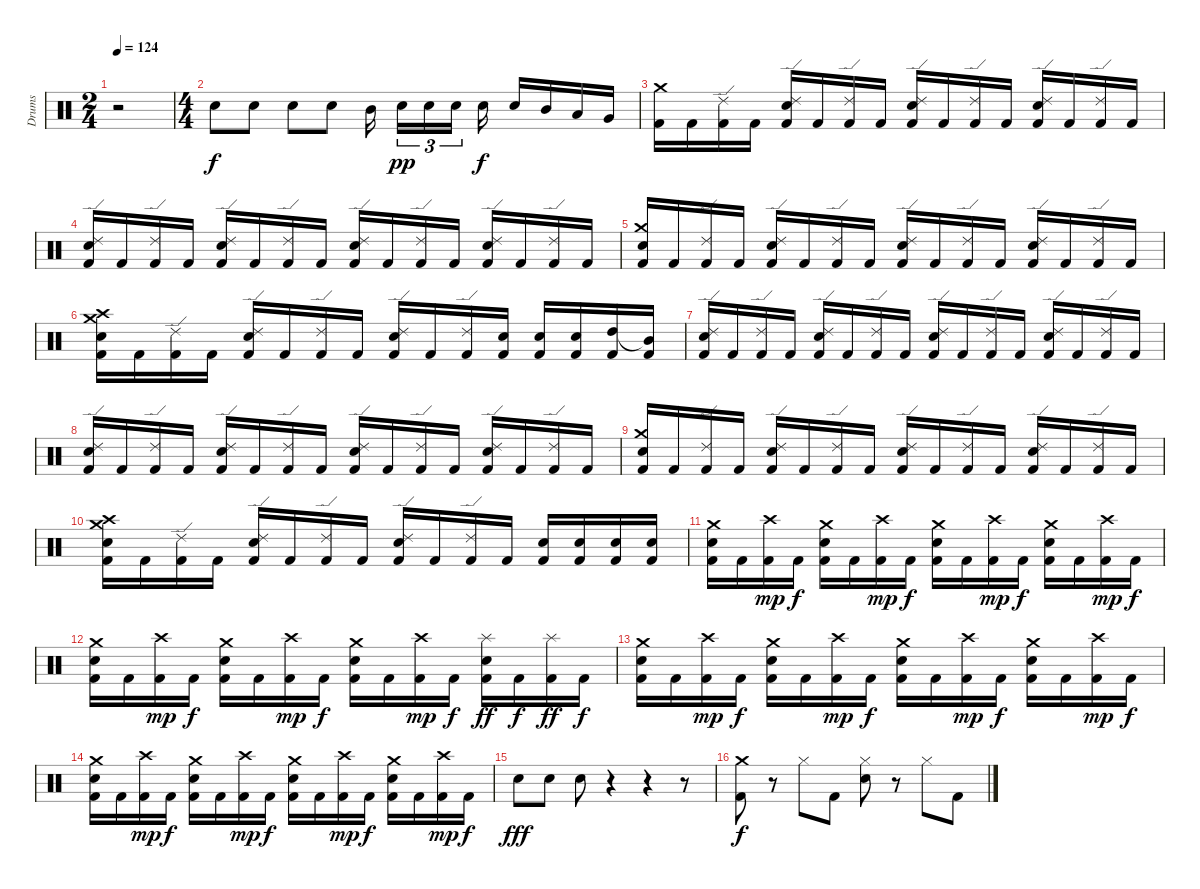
\track ("Drums" "Drums") {instrument percussion}
\staff {score}
\articulation defaults
\ts (2 4)
\tempo 124
\clef neutral
\ks c
r.2{dy f} |
\ts (4 4)
"Electric Snare (hit)".8 "Electric Snare (hit)".8 "Electric Snare (hit)".8 "Electric Snare (hit)".8 "Mid Tom (hit)".16 "Electric Snare (hit)".16{tu (3 2) dy pp} "Electric Snare (hit)".16{tu (3 2)} "Electric Snare (hit)".16{tu (3 2)} "Electric Snare (hit)".16{dy f} "Electric Snare (hit)".16 "Mid Tom (hit)".16 "Low Tom (hit)".16 "Very Low Tom (hit)".16 |
("Crash medium (hit)" "Kick (hit) 2").16 "Kick (hit) 2".16 ("Ride (edge) 2" "Kick (hit) 2").16 "Kick (hit) 2".16 ("Ride (edge) 2" "Electric Snare (hit)" "Kick (hit) 2").16 "Kick (hit) 2".16 ("Ride (edge) 2" "Kick (hit) 2").16 "Kick (hit) 2".16 ("Ride (edge) 2" "Electric Snare (hit)" "Kick (hit) 2").16 "Kick (hit) 2".16 ("Ride (edge) 2" "Kick (hit) 2").16 "Kick (hit) 2".16 ("Ride (edge) 2" "Electric Snare (hit)" "Kick (hit) 2").16 "Kick (hit) 2".16 ("Ride (edge) 2" "Kick (hit) 2").16 "Kick (hit) 2".16 |
("Ride (edge) 2" "Electric Snare (hit)" "Kick (hit) 2").16 "Kick (hit) 2".16 ("Ride (edge) 2" "Kick (hit) 2").16 "Kick (hit) 2".16 ("Ride (edge) 2" "Electric Snare (hit)" "Kick (hit) 2").16 "Kick (hit) 2".16 ("Ride (edge) 2" "Kick (hit) 2").16 "Kick (hit) 2".16 ("Ride (edge) 2" "Electric Snare (hit)" "Kick (hit) 2").16 "Kick (hit) 2".16 ("Ride (edge) 2" "Kick (hit) 2").16 "Kick (hit) 2".16 ("Ride (edge) 2" "Electric Snare (hit)" "Kick (hit) 2").16 "Kick (hit) 2".16 ("Ride (edge) 2" "Kick (hit) 2").16 "Kick (hit) 2".16 |
("Crash medium (hit)" "Electric Snare (hit)" "Kick (hit) 2").16 "Kick (hit) 2".16 ("Ride (edge) 2" "Kick (hit) 2").16 "Kick (hit) 2".16 ("Ride (edge) 2" "Electric Snare (hit)" "Kick (hit) 2").16 "Kick (hit) 2".16 ("Ride (edge) 2" "Kick (hit) 2").16 "Kick (hit) 2".16 ("Ride (edge) 2" "Electric Snare (hit)" "Kick (hit) 2").16 "Kick (hit) 2".16 ("Ride (edge) 2" "Kick (hit) 2").16 "Kick (hit) 2".16 ("Ride (edge) 2" "Electric Snare (hit)" "Kick (hit) 2").16 "Kick (hit) 2".16 ("Ride (edge) 2" "Kick (hit) 2").16 "Kick (hit) 2".16 |
("Crash high (hit)" "Crash medium (hit)" "Electric Snare (hit)" "Kick (hit) 2").16 "Kick (hit) 2".16 ("Ride (edge) 2" "Kick (hit) 2").16 "Kick (hit) 2".16 ("Ride (edge) 2" "Electric Snare (hit)" "Kick (hit) 2").16 "Kick (hit) 2".16 ("Ride (edge) 2" "Kick (hit) 2").16 "Kick (hit) 2".16 ("Ride (edge) 2" "Electric Snare (hit)" "Kick (hit) 2").16 "Kick (hit) 2".16 ("Ride (edge) 2" "Kick (hit) 2").16 ("Electric Snare (hit)" "Kick (hit) 2").16 ("Electric Snare (hit)" "Kick (hit) 2").16 ("Electric Snare (hit)" "Kick (hit) 2").16 ("High Tom (hit)" "Kick (hit) 2").16 ("Mid Tom (hit)"{t} "Kick (hit) 2").16 |
("Ride (edge) 2" "Electric Snare (hit)" "Kick (hit) 2").16 "Kick (hit) 2".16 ("Ride (edge) 2" "Kick (hit) 2").16 "Kick (hit) 2".16 ("Ride (edge) 2" "Electric Snare (hit)" "Kick (hit) 2").16 "Kick (hit) 2".16 ("Ride (edge) 2" "Kick (hit) 2").16 "Kick (hit) 2".16 ("Ride (edge) 2" "Electric Snare (hit)" "Kick (hit) 2").16 "Kick (hit) 2".16 ("Ride (edge) 2" "Kick (hit) 2").16 "Kick (hit) 2".16 ("Ride (edge) 2" "Electric Snare (hit)" "Kick (hit) 2").16 "Kick (hit) 2".16 ("Ride (edge) 2" "Kick (hit) 2").16 "Kick (hit) 2".16 |
("Ride (edge) 2" "Electric Snare (hit)" "Kick (hit) 2").16 "Kick (hit) 2".16 ("Ride (edge) 2" "Kick (hit) 2").16 "Kick (hit) 2".16 ("Ride (edge) 2" "Electric Snare (hit)" "Kick (hit) 2").16 "Kick (hit) 2".16 ("Ride (edge) 2" "Kick (hit) 2").16 "Kick (hit) 2".16 ("Ride (edge) 2" "Electric Snare (hit)" "Kick (hit) 2").16 "Kick (hit) 2".16 ("Ride (edge) 2" "Kick (hit) 2").16 "Kick (hit) 2".16 ("Ride (edge) 2" "Electric Snare (hit)" "Kick (hit) 2").16 "Kick (hit) 2".16 ("Ride (edge) 2" "Kick (hit) 2").16 "Kick (hit) 2".16 |
("Crash medium (hit)" "Electric Snare (hit)" "Kick (hit) 2").16 "Kick (hit) 2".16 ("Ride (edge) 2" "Kick (hit) 2").16 "Kick (hit) 2".16 ("Ride (edge) 2" "Electric Snare (hit)" "Kick (hit) 2").16 "Kick (hit) 2".16 ("Ride (edge) 2" "Kick (hit) 2").16 "Kick (hit) 2".16 ("Ride (edge) 2" "Electric Snare (hit)" "Kick (hit) 2").16 "Kick (hit) 2".16 ("Ride (edge) 2" "Kick (hit) 2").16 "Kick (hit) 2".16 ("Ride (edge) 2" "Electric Snare (hit)" "Kick (hit) 2").16 "Kick (hit) 2".16 ("Ride (edge) 2" "Kick (hit) 2").16 "Kick (hit) 2".16 |
("Crash medium (hit)" "Crash high (hit)" "Electric Snare (hit)" "Kick (hit) 2").16 "Kick (hit) 2".16 ("Ride (edge) 2" "Kick (hit) 2").16 "Kick (hit) 2".16 ("Ride (edge) 2" "Electric Snare (hit)" "Kick (hit) 2").16 "Kick (hit) 2".16 ("Ride (edge) 2" "Kick (hit) 2").16 "Kick (hit) 2".16 ("Ride (edge) 2" "Electric Snare (hit)" "Kick (hit) 2").16 "Kick (hit) 2".16 ("Ride (edge) 2" "Kick (hit) 2").16 "Kick (hit) 2".16 ("Electric Snare (hit)" "Kick (hit) 2").16 ("Electric Snare (hit)" "Kick (hit) 2").16 ("Electric Snare (hit)" "Kick (hit) 2").16 ("Electric Snare (hit)" "Kick (hit) 2").16 |
("Crash medium (hit)" "Electric Snare (hit)" "Kick (hit) 2").16 "Kick (hit) 2".16 ("Crash high (hit)" "Kick (hit) 2").16{dy mp} "Kick (hit) 2".16{dy f} ("Crash medium (hit)" "Electric Snare (hit)" "Kick (hit) 2").16 "Kick (hit) 2".16 ("Crash high (hit)" "Kick (hit) 2").16{dy mp} "Kick (hit) 2".16{dy f} ("Crash medium (hit)" "Electric Snare (hit)" "Kick (hit) 2").16 "Kick (hit) 2".16 ("Crash high (hit)" "Kick (hit) 2").16{dy mp} "Kick (hit) 2".16{dy f} ("Crash medium (hit)" "Electric Snare (hit)" "Kick (hit) 2").16 "Kick (hit) 2".16 ("Crash high (hit)" "Kick (hit) 2").16{dy mp} "Kick (hit) 2".16{dy f} |
("Crash medium (hit)" "Electric Snare (hit)" "Kick (hit) 2").16 "Kick (hit) 2".16 ("Crash high (hit)" "Kick (hit) 2").16{dy mp} "Kick (hit) 2".16{dy f} ("Crash medium (hit)" "Electric Snare (hit)" "Kick (hit) 2").16 "Kick (hit) 2".16 ("Crash high (hit)" "Kick (hit) 2").16{dy mp} "Kick (hit) 2".16{dy f} ("Crash medium (hit)" "Electric Snare (hit)" "Kick (hit) 2").16 "Kick (hit) 2".16 ("Crash high (hit)" "Kick (hit) 2").16{dy mp} "Kick (hit) 2".16{dy f} ("Splash (hit)" "Electric Snare (hit)" "Kick (hit) 2").16{dy ff} "Kick (hit) 2".16{dy f} ("Splash (hit)" "Kick (hit) 2").16{dy ff} "Kick (hit) 2".16{dy f} |
("Crash medium (hit)" "Electric Snare (hit)" "Kick (hit) 2").16 "Kick (hit) 2".16 ("Crash high (hit)" "Kick (hit) 2").16{dy mp} "Kick (hit) 2".16{dy f} ("Crash medium (hit)" "Electric Snare (hit)" "Kick (hit) 2").16 "Kick (hit) 2".16 ("Crash high (hit)" "Kick (hit) 2").16{dy mp} "Kick (hit) 2".16{dy f} ("Crash medium (hit)" "Electric Snare (hit)" "Kick (hit) 2").16 "Kick (hit) 2".16 ("Crash high (hit)" "Kick (hit) 2").16{dy mp} "Kick (hit) 2".16{dy f} ("Crash medium (hit)" "Electric Snare (hit)" "Kick (hit) 2").16 "Kick (hit) 2".16 ("Crash high (hit)" "Kick (hit) 2").16{dy mp} "Kick (hit) 2".16{dy f} |
("Crash medium (hit)" "Electric Snare (hit)" "Kick (hit) 2").16 "Kick (hit) 2".16 ("Crash high (hit)" "Kick (hit) 2").16{dy mp} "Kick (hit) 2".16{dy f} ("Crash medium (hit)" "Electric Snare (hit)" "Kick (hit) 2").16 "Kick (hit) 2".16 ("Crash high (hit)" "Kick (hit) 2").16{dy mp} "Kick (hit) 2".16{dy f} ("Crash medium (hit)" "Electric Snare (hit)" "Kick (hit) 2").16 "Kick (hit) 2".16 ("Crash high (hit)" "Kick (hit) 2").16{dy mp} "Kick (hit) 2".16{dy f} ("Crash medium (hit)" "Electric Snare (hit)" "Kick (hit) 2").16 "Kick (hit) 2".16 ("Crash high (hit)" "Kick (hit) 2").16{dy mp} "Kick (hit) 2".16{dy f} |
"Electric Snare (hit)".8{dy fff} "Electric Snare (hit)".8 "Electric Snare (hit)".8 r.4 r.4 r.8 |
("Crash medium (hit)" "Kick (hit) 2").8{dy f} r.8 "Hi-Hat (closed)".8 "Kick (hit) 2".8 ("Hi-Hat (closed)" "Electric Snare (hit)").8 r.8 "Hi-Hat (closed)".8 "Kick (hit) 2".8
